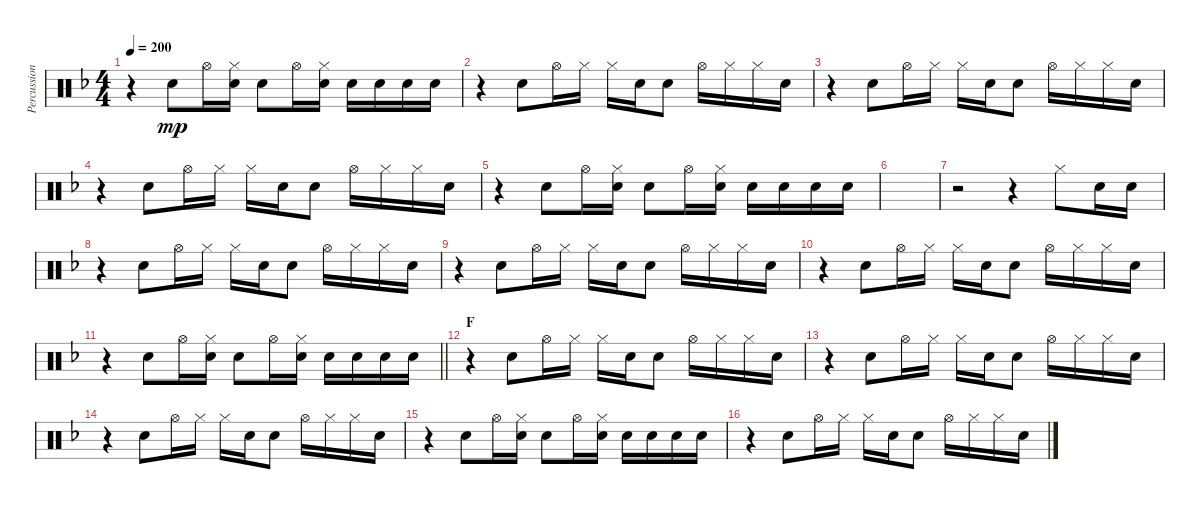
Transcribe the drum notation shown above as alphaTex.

\track ("Percussion (Tainaka Ritsu)" "Percussion") {instrument percussion}
\staff {score}
\articulation defaults
\ts (4 4)
\tempo 200
\clef neutral
\ks f
r.4{dy mp} "Electric Snare (hit)".8 "Hi-Hat (open)".16 ("Hi-Hat (closed)" "Electric Snare (hit)").16 "Electric Snare (hit)".8 "Hi-Hat (open)".16 ("Hi-Hat (closed)" "Electric Snare (hit)").16 "Electric Snare (hit)".16 "Electric Snare (hit)".16 "Electric Snare (hit)".16 "Electric Snare (hit)".16 |
r.4 "Electric Snare (hit)".8 "Hi-Hat (open)".16 "Hi-Hat (closed)".16 "Hi-Hat (closed)".16 "Electric Snare (hit)".16 "Electric Snare (hit)".8 "Hi-Hat (open)".16 "Hi-Hat (closed)".16 "Hi-Hat (closed)".16 "Electric Snare (hit)".16 |
r.4 "Electric Snare (hit)".8 "Hi-Hat (open)".16 "Hi-Hat (closed)".16 "Hi-Hat (closed)".16 "Electric Snare (hit)".16 "Electric Snare (hit)".8 "Hi-Hat (open)".16 "Hi-Hat (closed)".16 "Hi-Hat (closed)".16 "Electric Snare (hit)".16 |
r.4 "Electric Snare (hit)".8 "Hi-Hat (open)".16 "Hi-Hat (closed)".16 "Hi-Hat (closed)".16 "Electric Snare (hit)".16 "Electric Snare (hit)".8 "Hi-Hat (open)".16 "Hi-Hat (closed)".16 "Hi-Hat (closed)".16 "Electric Snare (hit)".16 |
r.4 "Electric Snare (hit)".8 "Hi-Hat (open)".16 ("Hi-Hat (closed)" "Electric Snare (hit)").16 "Electric Snare (hit)".8 "Hi-Hat (open)".16 ("Hi-Hat (closed)" "Electric Snare (hit)").16 "Electric Snare (hit)".16 "Electric Snare (hit)".16 "Electric Snare (hit)".16 "Electric Snare (hit)".16 |
|
r.2 r.4 "Hi-Hat (closed)".8 "Electric Snare (hit)".16 "Electric Snare (hit)".16 |
r.4 "Electric Snare (hit)".8 "Hi-Hat (open)".16 "Hi-Hat (closed)".16 "Hi-Hat (closed)".16 "Electric Snare (hit)".16 "Electric Snare (hit)".8 "Hi-Hat (open)".16 "Hi-Hat (closed)".16 "Hi-Hat (closed)".16 "Electric Snare (hit)".16 |
r.4 "Electric Snare (hit)".8 "Hi-Hat (open)".16 "Hi-Hat (closed)".16 "Hi-Hat (closed)".16 "Electric Snare (hit)".16 "Electric Snare (hit)".8 "Hi-Hat (open)".16 "Hi-Hat (closed)".16 "Hi-Hat (closed)".16 "Electric Snare (hit)".16 |
r.4 "Electric Snare (hit)".8 "Hi-Hat (open)".16 "Hi-Hat (closed)".16 "Hi-Hat (closed)".16 "Electric Snare (hit)".16 "Electric Snare (hit)".8 "Hi-Hat (open)".16 "Hi-Hat (closed)".16 "Hi-Hat (closed)".16 "Electric Snare (hit)".16 |
\barLineRight lightlight
r.4 "Electric Snare (hit)".8 "Hi-Hat (open)".16 ("Hi-Hat (closed)" "Electric Snare (hit)").16 "Electric Snare (hit)".8 "Hi-Hat (open)".16 ("Hi-Hat (closed)" "Electric Snare (hit)").16 "Electric Snare (hit)".16 "Electric Snare (hit)".16 "Electric Snare (hit)".16 "Electric Snare (hit)".16 |
\section ("" "F")
r.4 "Electric Snare (hit)".8 "Hi-Hat (open)".16 "Hi-Hat (closed)".16 "Hi-Hat (closed)".16 "Electric Snare (hit)".16 "Electric Snare (hit)".8 "Hi-Hat (open)".16 "Hi-Hat (closed)".16 "Hi-Hat (closed)".16 "Electric Snare (hit)".16 |
r.4 "Electric Snare (hit)".8 "Hi-Hat (open)".16 "Hi-Hat (closed)".16 "Hi-Hat (closed)".16 "Electric Snare (hit)".16 "Electric Snare (hit)".8 "Hi-Hat (open)".16 "Hi-Hat (closed)".16 "Hi-Hat (closed)".16 "Electric Snare (hit)".16 |
r.4 "Electric Snare (hit)".8 "Hi-Hat (open)".16 "Hi-Hat (closed)".16 "Hi-Hat (closed)".16 "Electric Snare (hit)".16 "Electric Snare (hit)".8 "Hi-Hat (open)".16 "Hi-Hat (closed)".16 "Hi-Hat (closed)".16 "Electric Snare (hit)".16 |
r.4 "Electric Snare (hit)".8 "Hi-Hat (open)".16 ("Hi-Hat (closed)" "Electric Snare (hit)").16 "Electric Snare (hit)".8 "Hi-Hat (open)".16 ("Hi-Hat (closed)" "Electric Snare (hit)").16 "Electric Snare (hit)".16 "Electric Snare (hit)".16 "Electric Snare (hit)".16 "Electric Snare (hit)".16 |
r.4 "Electric Snare (hit)".8 "Hi-Hat (open)".16 "Hi-Hat (closed)".16 "Hi-Hat (closed)".16 "Electric Snare (hit)".16 "Electric Snare (hit)".8 "Hi-Hat (open)".16 "Hi-Hat (closed)".16 "Hi-Hat (closed)".16 "Electric Snare (hit)".16
